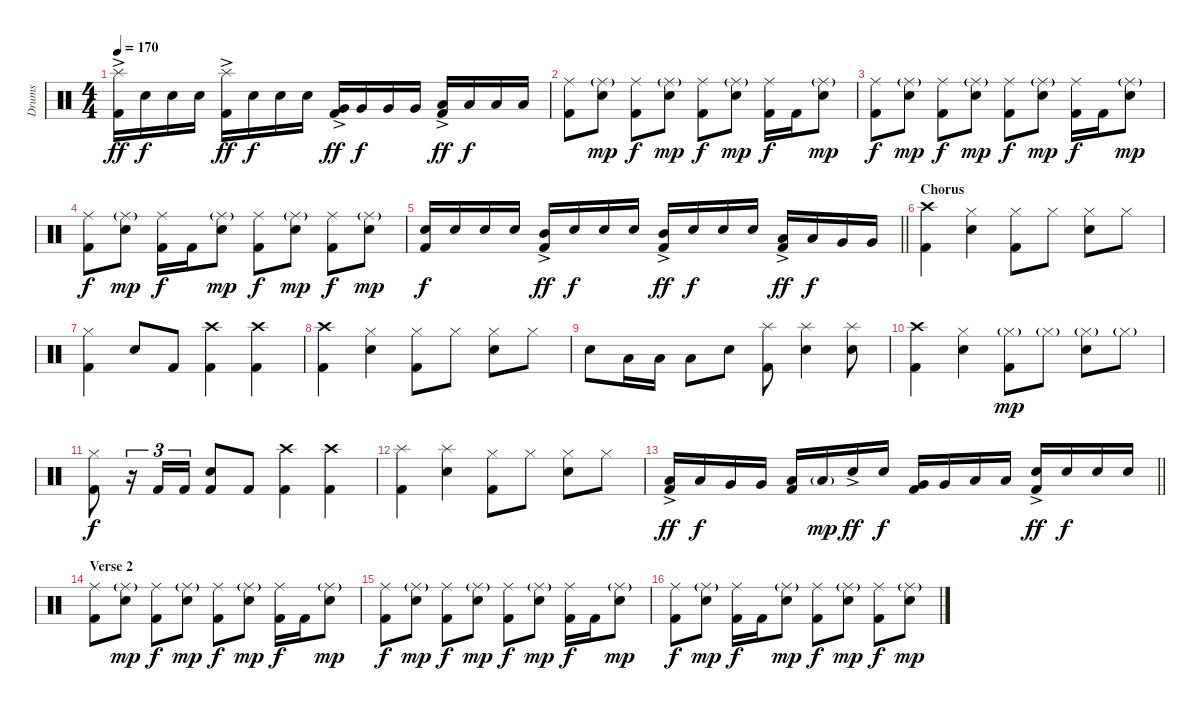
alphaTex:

\track ("Drums" "Drums") {instrument percussion}
\staff {score}
\articulation defaults
\ts (4 4)
\tempo 170
\clef neutral
\ks c
("Splash (hit)"{ac} "Kick (hit) 2").16{dy ff} "Snare (hit) 2".16{dy f} "Snare (hit) 2".16 "Snare (hit) 2".16 ("Splash (hit)"{ac} "Kick (hit) 2").16{dy ff} "Snare (hit) 2".16{dy f} "Snare (hit) 2".16 "Snare (hit) 2".16 ("Very Low Tom (hit)"{ac} "Kick (hit) 2").16{dy ff} "Very Low Tom (hit)".16{dy f} "Very Low Tom (hit)".16 "Very Low Tom (hit)".16 ("Low Floor Tom (hit)"{ac} "Kick (hit) 2").16{dy ff} "Low Floor Tom (hit)".16{dy f} "Low Floor Tom (hit)".16 "Low Floor Tom (hit)".16 |
("Ride (middle)" "Kick (hit) 2").8 ("Ride (middle)"{g} "Snare (hit) 2").8{dy mp} ("Ride (middle)" "Kick (hit) 2").8{dy f} ("Ride (middle)"{g} "Snare (hit) 2").8{dy mp} ("Ride (middle)" "Kick (hit) 2").8{dy f} ("Ride (middle)"{g} "Snare (hit) 2").8{dy mp} ("Ride (middle)" "Kick (hit) 2").16{dy f} "Kick (hit) 2".16 ("Ride (middle)"{g} "Snare (hit) 2").8{dy mp} |
("Ride (middle)" "Kick (hit) 2").8{dy f} ("Ride (middle)"{g} "Snare (hit) 2").8{dy mp} ("Ride (middle)" "Kick (hit) 2").8{dy f} ("Ride (middle)"{g} "Snare (hit) 2").8{dy mp} ("Ride (middle)" "Kick (hit) 2").8{dy f} ("Ride (middle)"{g} "Snare (hit) 2").8{dy mp} ("Ride (middle)" "Kick (hit) 2").16{dy f} "Kick (hit) 2".16 ("Ride (middle)"{g} "Snare (hit) 2").8{dy mp} |
("Ride (middle)" "Kick (hit) 2").8{dy f} ("Ride (middle)"{g} "Snare (hit) 2").8{dy mp} ("Ride (middle)" "Kick (hit) 2").16{dy f} "Kick (hit) 2".16 ("Ride (middle)"{g} "Snare (hit) 2").8{dy mp} ("Ride (middle)" "Kick (hit) 2").8{dy f} ("Ride (middle)"{g} "Snare (hit) 2").8{dy mp} ("Ride (middle)" "Kick (hit) 2").8{dy f} ("Ride (middle)"{g} "Snare (hit) 2").8{dy mp} |
\barLineRight lightlight
("Snare (hit) 2" "Kick (hit) 2").16{dy f} "Snare (hit) 2".16 "Snare (hit) 2".16 "Snare (hit) 2".16 ("Mid Tom (hit)"{ac} "Kick (hit) 2").16{dy ff} "Snare (hit) 2".16{dy f} "Snare (hit) 2".16 "Snare (hit) 2".16 ("Mid Tom (hit)"{ac} "Kick (hit) 2").16{dy ff} "Snare (hit) 2".16{dy f} "Snare (hit) 2".16 "Snare (hit) 2".16 ("Low Tom (hit)"{ac} "Kick (hit) 2").16{dy ff} "Low Tom (hit)".16{dy f} "Very Low Tom (hit)".16 "Very Low Tom (hit)".16 |
\section ("" "Chorus")
("Crash high (hit)" "Kick (hit) 2").4 ("Hi-Hat (closed)" "Snare (hit) 2").4 ("Hi-Hat (closed)" "Kick (hit) 2").8 "Hi-Hat (closed)".8 ("Hi-Hat (closed)" "Snare (hit) 2").8 "Hi-Hat (closed)".8 |
("Hi-Hat (closed)" "Kick (hit) 2").4 "Snare (hit) 2".8 "Kick (hit) 2".8 ("Crash high (hit)" "Kick (hit) 2").4 ("Crash high (hit)" "Kick (hit) 2").4 |
("Crash high (hit)" "Kick (hit) 2").4 ("Hi-Hat (closed)" "Snare (hit) 2").4 ("Hi-Hat (closed)" "Kick (hit) 2").8 "Hi-Hat (closed)".8 ("Hi-Hat (closed)" "Snare (hit) 2").8 "Hi-Hat (closed)".8 |
"Snare (hit) 2".8 "Low Tom (hit)".16 "Low Tom (hit)".16 "Low Tom (hit)".8 "Snare (hit) 2".8 ("Splash (hit)" "Kick (hit) 2").8 ("Splash (hit)" "Snare (hit) 2").4 ("Splash (hit)" "Snare (hit) 2").8 |
("Crash high (hit)" "Kick (hit) 2").4 ("Hi-Hat (closed)" "Snare (hit) 2").4 ("Hi-Hat (closed)"{g} "Kick (hit) 2").8{dy mp} "Hi-Hat (closed)"{g}.8 ("Hi-Hat (closed)"{g} "Snare (hit) 2").8 "Hi-Hat (closed)"{g}.8 |
("Hi-Hat (closed)" "Kick (hit) 2").8{dy f} r.16{tu (3 2)} "Kick (hit) 2".16{tu (3 2)} "Kick (hit) 2".16{tu (3 2)} ("Snare (hit) 2" "Kick (hit) 2").8 "Kick (hit) 2".8 ("Crash high (hit)" "Kick (hit) 2").4 ("Crash high (hit)" "Kick (hit) 2").4 |
("Splash (hit)" "Kick (hit) 2").4 ("Splash (hit)" "Snare (hit) 2").4 ("Hi-Hat (closed)" "Kick (hit) 2").8 "Hi-Hat (closed)".8 ("Hi-Hat (closed)" "Snare (hit) 2").8 "Hi-Hat (closed)".8 |
\barLineRight lightlight
("Low Tom (hit)"{ac} "Kick (hit) 2").16{dy ff} "Low Tom (hit)".16{dy f} "Very Low Tom (hit)".16 "Very Low Tom (hit)".16 ("Low Floor Tom (hit)" "Kick (hit) 2").16 "Low Floor Tom (hit)"{g}.16{dy mp} "Snare (hit) 2"{ac}.16{dy ff} "Snare (hit) 2".16{dy f} ("Very Low Tom (hit)" "Kick (hit) 2").16 "Very Low Tom (hit)".16 "Low Floor Tom (hit)".16 "Low Floor Tom (hit)".16 ("Snare (hit) 2"{ac} "Kick (hit) 2").16{dy ff} "Snare (hit) 2".16{dy f} "Snare (hit) 2".16 "Snare (hit) 2".16 |
\section ("" "Verse 2")
("Ride (middle)" "Kick (hit) 2").8 ("Ride (middle)"{g} "Snare (hit) 2").8{dy mp} ("Ride (middle)" "Kick (hit) 2").8{dy f} ("Ride (middle)"{g} "Snare (hit) 2").8{dy mp} ("Ride (middle)" "Kick (hit) 2").8{dy f} ("Ride (middle)"{g} "Snare (hit) 2").8{dy mp} ("Ride (middle)" "Kick (hit) 2").16{dy f} "Kick (hit) 2".16 ("Ride (middle)"{g} "Snare (hit) 2").8{dy mp} |
("Ride (middle)" "Kick (hit) 2").8{dy f} ("Ride (middle)"{g} "Snare (hit) 2").8{dy mp} ("Ride (middle)" "Kick (hit) 2").8{dy f} ("Ride (middle)"{g} "Snare (hit) 2").8{dy mp} ("Ride (middle)" "Kick (hit) 2").8{dy f} ("Ride (middle)"{g} "Snare (hit) 2").8{dy mp} ("Ride (middle)" "Kick (hit) 2").16{dy f} "Kick (hit) 2".16 ("Ride (middle)"{g} "Snare (hit) 2").8{dy mp} |
("Ride (middle)" "Kick (hit) 2").8{dy f} ("Ride (middle)"{g} "Snare (hit) 2").8{dy mp} ("Ride (middle)" "Kick (hit) 2").16{dy f} "Kick (hit) 2".16 ("Ride (middle)"{g} "Snare (hit) 2").8{dy mp} ("Ride (middle)" "Kick (hit) 2").8{dy f} ("Ride (middle)"{g} "Snare (hit) 2").8{dy mp} ("Ride (middle)" "Kick (hit) 2").8{dy f} ("Ride (middle)"{g} "Snare (hit) 2").8{dy mp}
